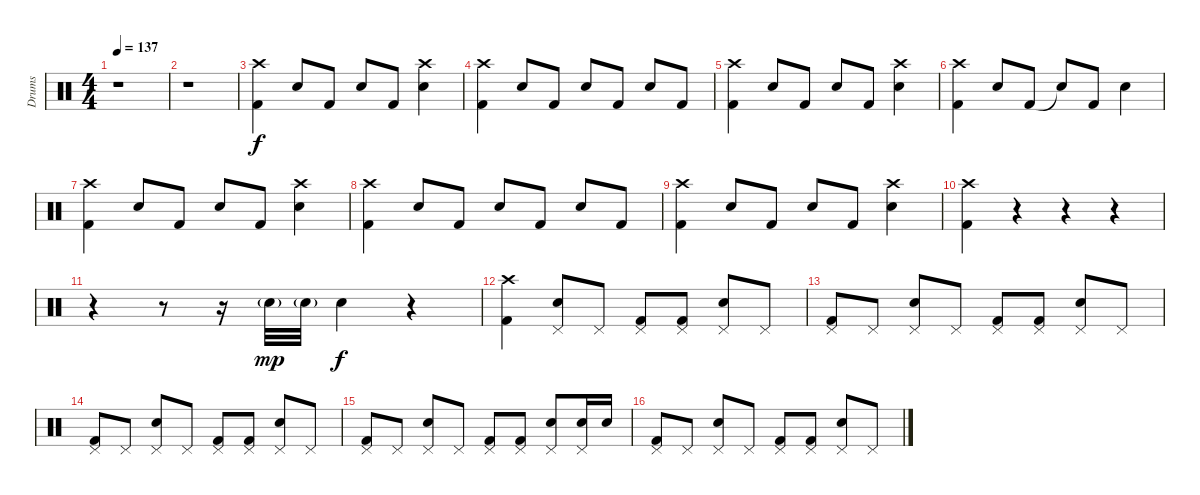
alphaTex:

\track ("Drums" "Drums") {instrument percussion}
\staff {score}
\articulation defaults
\ts (4 4)
\tempo 137
\clef neutral
\ks c
r.1{dy f} |
r.1 |
("Crash high (hit)" "Kick (hit) 2").4 "Electric Snare (hit)".8 "Kick (hit) 2".8 "Electric Snare (hit)".8 "Kick (hit) 2".8 ("Crash high (hit)" "Electric Snare (hit)").4 |
("Crash high (hit)" "Kick (hit) 2").4 "Electric Snare (hit)".8 "Kick (hit) 2".8 "Electric Snare (hit)".8 "Kick (hit) 2".8 "Electric Snare (hit)".8 "Kick (hit) 2".8 |
("Crash high (hit)" "Kick (hit) 2").4 "Electric Snare (hit)".8 "Kick (hit) 2".8 "Electric Snare (hit)".8 "Kick (hit) 2".8 ("Crash high (hit)" "Electric Snare (hit)").4 |
("Crash high (hit)" "Kick (hit) 2").4 "Electric Snare (hit)".8 "Kick (hit) 2".8 "Snare (hit)"{t}.8 "Kick (hit) 2".8 "Electric Snare (hit)".4 |
("Crash high (hit)" "Kick (hit) 2").4 "Electric Snare (hit)".8 "Kick (hit) 2".8 "Electric Snare (hit)".8 "Kick (hit) 2".8 ("Crash high (hit)" "Electric Snare (hit)").4 |
("Crash high (hit)" "Kick (hit) 2").4 "Electric Snare (hit)".8 "Kick (hit) 2".8 "Electric Snare (hit)".8 "Kick (hit) 2".8 "Electric Snare (hit)".8 "Kick (hit) 2".8 |
("Crash high (hit)" "Kick (hit) 2").4 "Electric Snare (hit)".8 "Kick (hit) 2".8 "Electric Snare (hit)".8 "Kick (hit) 2".8 ("Crash high (hit)" "Electric Snare (hit)").4 |
("Crash high (hit)" "Kick (hit) 2").4 r.4 r.4 r.4 |
r.4 r.8 r.16 "Electric Snare (hit)"{g}.32{dy mp} "Electric Snare (hit)"{g}.32 "Electric Snare (hit)".4{dy f} r.4 |
("Crash high (hit)" "Kick (hit) 2").4 ("Pedal Hi-Hat (hit)" "Electric Snare (hit)").8 "Pedal Hi-Hat (hit)".8 ("Pedal Hi-Hat (hit)" "Kick (hit) 2").8 ("Pedal Hi-Hat (hit)" "Kick (hit) 2").8 ("Pedal Hi-Hat (hit)" "Electric Snare (hit)").8 "Pedal Hi-Hat (hit)".8 |
("Pedal Hi-Hat (hit)" "Kick (hit) 2").8 "Pedal Hi-Hat (hit)".8 ("Pedal Hi-Hat (hit)" "Electric Snare (hit)").8 "Pedal Hi-Hat (hit)".8 ("Pedal Hi-Hat (hit)" "Kick (hit) 2").8 ("Pedal Hi-Hat (hit)" "Kick (hit) 2").8 ("Pedal Hi-Hat (hit)" "Electric Snare (hit)").8 "Pedal Hi-Hat (hit)".8 |
("Pedal Hi-Hat (hit)" "Kick (hit) 2").8 "Pedal Hi-Hat (hit)".8 ("Pedal Hi-Hat (hit)" "Electric Snare (hit)").8 "Pedal Hi-Hat (hit)".8 ("Pedal Hi-Hat (hit)" "Kick (hit) 2").8 ("Pedal Hi-Hat (hit)" "Kick (hit) 2").8 ("Pedal Hi-Hat (hit)" "Electric Snare (hit)").8 "Pedal Hi-Hat (hit)".8 |
("Pedal Hi-Hat (hit)" "Kick (hit) 2").8 "Pedal Hi-Hat (hit)".8 ("Pedal Hi-Hat (hit)" "Electric Snare (hit)").8 "Pedal Hi-Hat (hit)".8 ("Pedal Hi-Hat (hit)" "Kick (hit) 2").8 ("Pedal Hi-Hat (hit)" "Kick (hit) 2").8 ("Pedal Hi-Hat (hit)" "Electric Snare (hit)").8 ("Pedal Hi-Hat (hit)" "Electric Snare (hit)").16 "Electric Snare (hit)".16 |
("Pedal Hi-Hat (hit)" "Kick (hit) 2").8 "Pedal Hi-Hat (hit)".8 ("Pedal Hi-Hat (hit)" "Electric Snare (hit)").8 "Pedal Hi-Hat (hit)".8 ("Pedal Hi-Hat (hit)" "Kick (hit) 2").8 ("Pedal Hi-Hat (hit)" "Kick (hit) 2").8 ("Pedal Hi-Hat (hit)" "Electric Snare (hit)").8 "Pedal Hi-Hat (hit)".8
